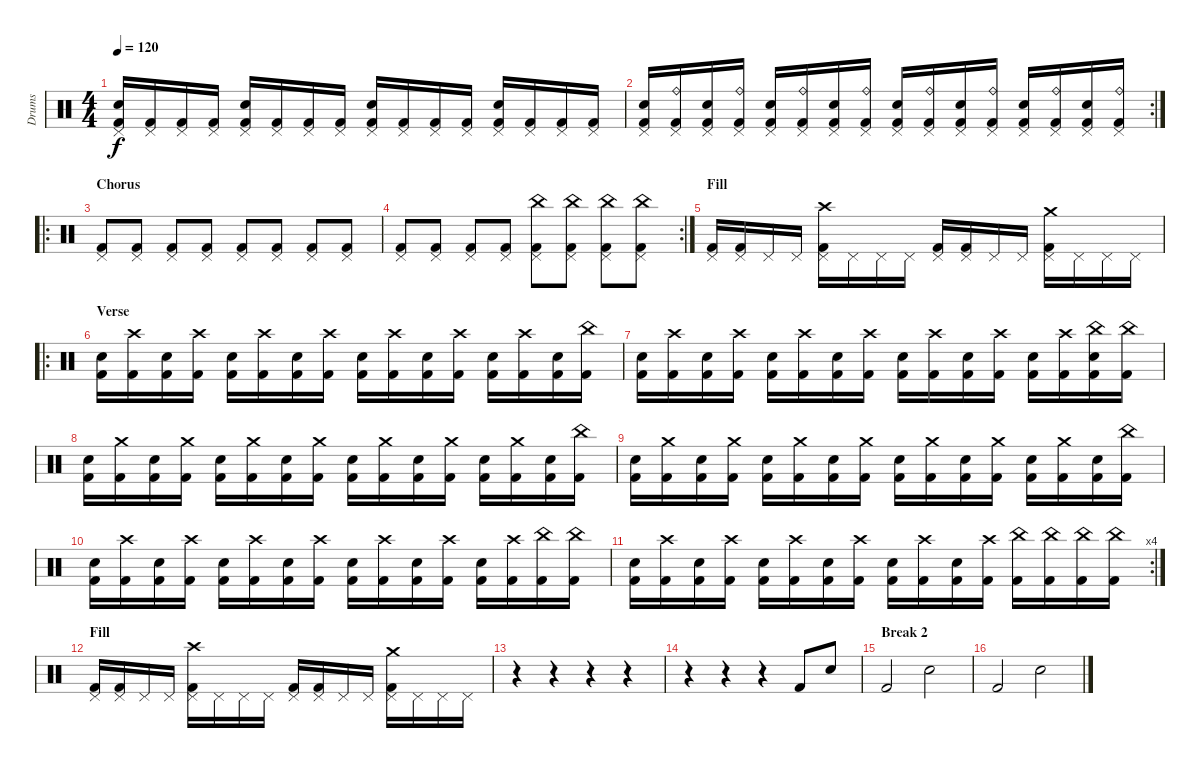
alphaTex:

\track ("Drums" "Drums") {instrument percussion}
\staff {score}
\articulation defaults
\ts (4 4)
\tempo 120
\clef neutral
\ks c
("Electric Snare (hit)" "Kick (hit) 2" "Pedal Hi-Hat (hit)").16{dy f} ("Kick (hit) 2" "Pedal Hi-Hat (hit)").16 ("Kick (hit) 2" "Pedal Hi-Hat (hit)").16 ("Kick (hit) 2" "Pedal Hi-Hat (hit)").16 ("Electric Snare (hit)" "Kick (hit) 2" "Pedal Hi-Hat (hit)").16 ("Kick (hit) 2" "Pedal Hi-Hat (hit)").16 ("Kick (hit) 2" "Pedal Hi-Hat (hit)").16 ("Kick (hit) 2" "Pedal Hi-Hat (hit)").16 ("Electric Snare (hit)" "Kick (hit) 2" "Pedal Hi-Hat (hit)").16 ("Kick (hit) 2" "Pedal Hi-Hat (hit)").16 ("Kick (hit) 2" "Pedal Hi-Hat (hit)").16 ("Kick (hit) 2" "Pedal Hi-Hat (hit)").16 ("Electric Snare (hit)" "Kick (hit) 2" "Pedal Hi-Hat (hit)").16 ("Kick (hit) 2" "Pedal Hi-Hat (hit)").16 ("Kick (hit) 2" "Pedal Hi-Hat (hit)").16 ("Kick (hit) 2" "Pedal Hi-Hat (hit)").16 |
\rc 2
("Electric Snare (hit)" "Kick (hit) 2" "Pedal Hi-Hat (hit)").16 ("Ride (bell)" "Kick (hit) 2" "Pedal Hi-Hat (hit)").16 ("Electric Snare (hit)" "Kick (hit) 2" "Pedal Hi-Hat (hit)").16 ("Ride (bell)" "Kick (hit) 2" "Pedal Hi-Hat (hit)").16 ("Electric Snare (hit)" "Kick (hit) 2" "Pedal Hi-Hat (hit)").16 ("Ride (bell)" "Kick (hit) 2" "Pedal Hi-Hat (hit)").16 ("Electric Snare (hit)" "Kick (hit) 2" "Pedal Hi-Hat (hit)").16 ("Ride (bell)" "Kick (hit) 2" "Pedal Hi-Hat (hit)").16 ("Electric Snare (hit)" "Kick (hit) 2" "Pedal Hi-Hat (hit)").16 ("Ride (bell)" "Kick (hit) 2" "Pedal Hi-Hat (hit)").16 ("Electric Snare (hit)" "Kick (hit) 2" "Pedal Hi-Hat (hit)").16 ("Ride (bell)" "Kick (hit) 2" "Pedal Hi-Hat (hit)").16 ("Electric Snare (hit)" "Kick (hit) 2" "Pedal Hi-Hat (hit)").16 ("Ride (bell)" "Kick (hit) 2" "Pedal Hi-Hat (hit)").16 ("Electric Snare (hit)" "Kick (hit) 2" "Pedal Hi-Hat (hit)").16 ("Ride (bell)" "Kick (hit) 2" "Pedal Hi-Hat (hit)").16 |
\ro
\section ("" "Chorus")
("Kick (hit) 2" "Pedal Hi-Hat (hit)").8 ("Kick (hit) 2" "Pedal Hi-Hat (hit)").8 ("Kick (hit) 2" "Pedal Hi-Hat (hit)").8 ("Kick (hit) 2" "Pedal Hi-Hat (hit)").8 ("Kick (hit) 2" "Pedal Hi-Hat (hit)").8 ("Kick (hit) 2" "Pedal Hi-Hat (hit)").8 ("Kick (hit) 2" "Pedal Hi-Hat (hit)").8 ("Kick (hit) 2" "Pedal Hi-Hat (hit)").8 |
\rc 2
("Kick (hit) 2" "Pedal Hi-Hat (hit)").8 ("Kick (hit) 2" "Pedal Hi-Hat (hit)").8 ("Kick (hit) 2" "Pedal Hi-Hat (hit)").8 ("Kick (hit) 2" "Pedal Hi-Hat (hit)").8 ("Kick (hit) 2" "Pedal Hi-Hat (hit)" "China (hit)").8 ("Kick (hit) 2" "Pedal Hi-Hat (hit)" "China (hit)").8 ("Kick (hit) 2" "Pedal Hi-Hat (hit)" "China (hit)").8 ("Kick (hit) 2" "Pedal Hi-Hat (hit)" "China (hit)").8 |
\section ("" "Fill")
("Kick (hit) 2" "Pedal Hi-Hat (hit)").16 ("Kick (hit) 2" "Pedal Hi-Hat (hit)").16 "Pedal Hi-Hat (hit)".16 "Pedal Hi-Hat (hit)".16 ("Kick (hit) 2" "Pedal Hi-Hat (hit)" "Crash high (hit)").16 "Pedal Hi-Hat (hit)".16 "Pedal Hi-Hat (hit)".16 "Pedal Hi-Hat (hit)".16 ("Kick (hit) 2" "Pedal Hi-Hat (hit)").16 ("Kick (hit) 2" "Pedal Hi-Hat (hit)").16 "Pedal Hi-Hat (hit)".16 "Pedal Hi-Hat (hit)".16 ("Kick (hit) 2" "Pedal Hi-Hat (hit)" "Crash medium (hit)").16 "Pedal Hi-Hat (hit)".16 "Pedal Hi-Hat (hit)".16 "Pedal Hi-Hat (hit)".16 |
\ro
\section ("" "Verse")
("Kick (hit) 2" "Electric Snare (hit)").16 ("Kick (hit) 2" "Crash high (hit)").16 ("Kick (hit) 2" "Electric Snare (hit)").16 ("Kick (hit) 2" "Crash high (hit)").16 ("Kick (hit) 2" "Electric Snare (hit)").16 ("Kick (hit) 2" "Crash high (hit)").16 ("Kick (hit) 2" "Electric Snare (hit)").16 ("Kick (hit) 2" "Crash high (hit)").16 ("Kick (hit) 2" "Electric Snare (hit)").16 ("Kick (hit) 2" "Crash high (hit)").16 ("Kick (hit) 2" "Electric Snare (hit)").16 ("Kick (hit) 2" "Crash high (hit)").16 ("Kick (hit) 2" "Electric Snare (hit)").16 ("Kick (hit) 2" "Crash high (hit)").16 ("Kick (hit) 2" "Electric Snare (hit)").16 ("Kick (hit) 2" "China (hit)").16 |
("Kick (hit) 2" "Electric Snare (hit)").16 ("Kick (hit) 2" "Crash high (hit)").16 ("Kick (hit) 2" "Electric Snare (hit)").16 ("Kick (hit) 2" "Crash high (hit)").16 ("Kick (hit) 2" "Electric Snare (hit)").16 ("Kick (hit) 2" "Crash high (hit)").16 ("Kick (hit) 2" "Electric Snare (hit)").16 ("Kick (hit) 2" "Crash high (hit)").16 ("Kick (hit) 2" "Electric Snare (hit)").16 ("Kick (hit) 2" "Crash high (hit)").16 ("Kick (hit) 2" "Electric Snare (hit)").16 ("Kick (hit) 2" "Crash high (hit)").16 ("Kick (hit) 2" "Electric Snare (hit)").16 ("Kick (hit) 2" "Crash high (hit)").16 ("Kick (hit) 2" "China (hit)" "Electric Snare (hit)").16 ("Kick (hit) 2" "China (hit)").16 |
("Kick (hit) 2" "Electric Snare (hit)").16 ("Kick (hit) 2" "Crash medium (hit)").16 ("Kick (hit) 2" "Electric Snare (hit)").16 ("Kick (hit) 2" "Crash medium (hit)").16 ("Kick (hit) 2" "Electric Snare (hit)").16 ("Kick (hit) 2" "Crash medium (hit)").16 ("Kick (hit) 2" "Electric Snare (hit)").16 ("Kick (hit) 2" "Crash medium (hit)").16 ("Kick (hit) 2" "Electric Snare (hit)").16 ("Kick (hit) 2" "Crash medium (hit)").16 ("Kick (hit) 2" "Electric Snare (hit)").16 ("Kick (hit) 2" "Crash medium (hit)").16 ("Kick (hit) 2" "Electric Snare (hit)").16 ("Kick (hit) 2" "Crash medium (hit)").16 ("Kick (hit) 2" "Electric Snare (hit)").16 ("Kick (hit) 2" "China (hit)").16 |
("Kick (hit) 2" "Electric Snare (hit)").16 ("Kick (hit) 2" "Crash medium (hit)").16 ("Kick (hit) 2" "Electric Snare (hit)").16 ("Kick (hit) 2" "Crash medium (hit)").16 ("Kick (hit) 2" "Electric Snare (hit)").16 ("Kick (hit) 2" "Crash medium (hit)").16 ("Kick (hit) 2" "Electric Snare (hit)").16 ("Kick (hit) 2" "Crash medium (hit)").16 ("Kick (hit) 2" "Electric Snare (hit)").16 ("Kick (hit) 2" "Crash medium (hit)").16 ("Kick (hit) 2" "Electric Snare (hit)").16 ("Kick (hit) 2" "Crash medium (hit)").16 ("Kick (hit) 2" "Electric Snare (hit)").16 ("Kick (hit) 2" "Crash medium (hit)").16 ("Kick (hit) 2" "Electric Snare (hit)").16 ("Kick (hit) 2" "China (hit)").16 |
("Kick (hit) 2" "Electric Snare (hit)").16 ("Kick (hit) 2" "Crash high (hit)").16 ("Kick (hit) 2" "Electric Snare (hit)").16 ("Kick (hit) 2" "Crash high (hit)").16 ("Kick (hit) 2" "Electric Snare (hit)").16 ("Kick (hit) 2" "Crash high (hit)").16 ("Kick (hit) 2" "Electric Snare (hit)").16 ("Kick (hit) 2" "Crash high (hit)").16 ("Kick (hit) 2" "Electric Snare (hit)").16 ("Kick (hit) 2" "Crash high (hit)").16 ("Kick (hit) 2" "Electric Snare (hit)").16 ("Kick (hit) 2" "Crash high (hit)").16 ("Kick (hit) 2" "Electric Snare (hit)").16 ("Kick (hit) 2" "Crash high (hit)").16 ("Kick (hit) 2" "China (hit)").16 ("Kick (hit) 2" "China (hit)").16 |
\rc 4
("Kick (hit) 2" "Electric Snare (hit)").16 ("Kick (hit) 2" "Crash high (hit)").16 ("Kick (hit) 2" "Electric Snare (hit)").16 ("Kick (hit) 2" "Crash high (hit)").16 ("Kick (hit) 2" "Electric Snare (hit)").16 ("Kick (hit) 2" "Crash high (hit)").16 ("Kick (hit) 2" "Electric Snare (hit)").16 ("Kick (hit) 2" "Crash high (hit)").16 ("Kick (hit) 2" "Electric Snare (hit)").16 ("Kick (hit) 2" "Crash high (hit)").16 ("Kick (hit) 2" "Electric Snare (hit)").16 ("Kick (hit) 2" "Crash high (hit)").16 ("Kick (hit) 2" "China (hit)").16 ("Kick (hit) 2" "China (hit)").16 ("Kick (hit) 2" "China (hit)").16 ("Kick (hit) 2" "China (hit)").16 |
\section ("" "Fill")
("Kick (hit) 2" "Pedal Hi-Hat (hit)").16 ("Kick (hit) 2" "Pedal Hi-Hat (hit)").16 "Pedal Hi-Hat (hit)".16 "Pedal Hi-Hat (hit)".16 ("Kick (hit) 2" "Pedal Hi-Hat (hit)" "Crash high (hit)").16 "Pedal Hi-Hat (hit)".16 "Pedal Hi-Hat (hit)".16 "Pedal Hi-Hat (hit)".16 ("Kick (hit) 2" "Pedal Hi-Hat (hit)").16 ("Kick (hit) 2" "Pedal Hi-Hat (hit)").16 "Pedal Hi-Hat (hit)".16 "Pedal Hi-Hat (hit)".16 ("Kick (hit) 2" "Pedal Hi-Hat (hit)" "Crash medium (hit)").16 "Pedal Hi-Hat (hit)".16 "Pedal Hi-Hat (hit)".16 "Pedal Hi-Hat (hit)".16 |
r.4 r.4 r.4 r.4 |
r.4 r.4 r.4 "Kick (hit) 2".8 "Electric Snare (hit)".8 |
\section ("" "Break 2")
"Kick (hit) 2".2 "Electric Snare (hit)".2 |
"Kick (hit) 2".2 "Electric Snare (hit)".2
